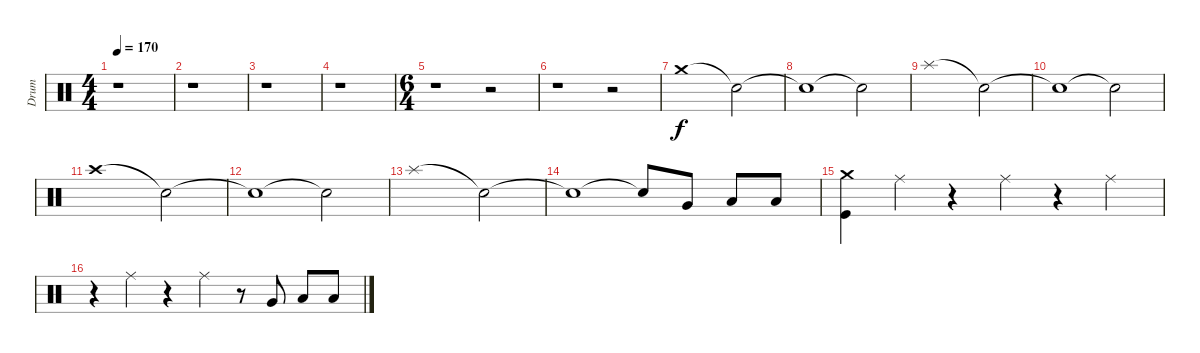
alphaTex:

\track ("Drum" "Drum") {instrument percussion}
\staff {score}
\articulation defaults
\ts (4 4)
\tempo 170
\tempo 113
\tempo 170
\clef neutral
\ks c
r.1{dy f} |
r.1 |
r.1 |
r.1 |
\ts (6 4)
r.1 r.2 |
r.1 r.2 |
"Crash medium (hit)".1 "Snare (hit)"{t}.2 |
"Snare (hit)"{t}.1 "Snare (hit)"{t}.2 |
"Splash (hit)".1 "Snare (hit)"{t}.2 |
"Snare (hit)"{t}.1 "Snare (hit)"{t}.2 |
"Crash high (hit)".1 "Snare (hit)"{t}.2 |
"Snare (hit)"{t}.1 "Snare (hit)"{t}.2 |
"Splash (hit)".1 "Snare (hit)"{t}.2 |
"Snare (hit)"{t}.1 "Snare (hit)"{t}.8 "Very Low Tom (hit)".8 "Low Tom (hit)".8 "Low Floor Tom (hit)".8 |
("Crash medium (hit)" "Kick (hit)").4 "Ride (middle)".4 r.4 "Ride (middle)".4 r.4 "Ride (middle)".4 |
r.4 "Ride (middle)".4 r.4 "Ride (middle)".4 r.8 "Very Low Tom (hit)".8 "Low Tom (hit)".8 "Low Floor Tom (hit)".8
